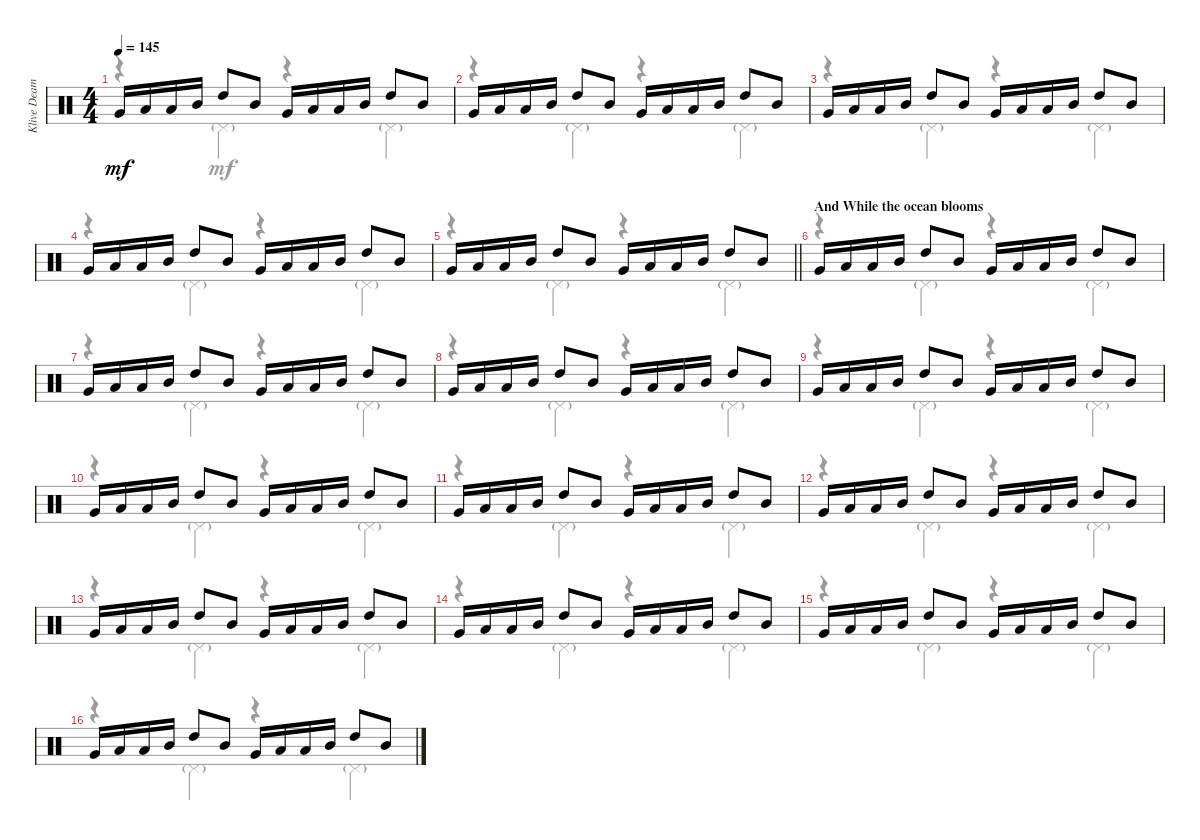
\track ("Klive Deamer" "Klive Deam") {instrument percussion}
\staff {score}
\articulation defaults
\voice
\ts (4 4)
\tempo 145
\clef neutral
\ks c "Very Low Tom (hit)".16{dy mf} "Low Tom (hit)".16 "Low Tom (hit)".16 "Mid Tom (hit)".16 "High Tom (hit)".8 "Mid Tom (hit)".8 "Very Low Tom (hit)".16 "Low Tom (hit)".16 "Low Tom (hit)".16 "Mid Tom (hit)".16 "High Tom (hit)".8 "Mid Tom (hit)".8
|
"Very Low Tom (hit)".16 "Low Tom (hit)".16 "Low Tom (hit)".16 "Mid Tom (hit)".16 "High Tom (hit)".8 "Mid Tom (hit)".8 "Very Low Tom (hit)".16 "Low Tom (hit)".16 "Low Tom (hit)".16 "Mid Tom (hit)".16 "High Tom (hit)".8 "Mid Tom (hit)".8 |
"Very Low Tom (hit)".16 "Low Tom (hit)".16 "Low Tom (hit)".16 "Mid Tom (hit)".16 "High Tom (hit)".8 "Mid Tom (hit)".8 "Very Low Tom (hit)".16 "Low Tom (hit)".16 "Low Tom (hit)".16 "Mid Tom (hit)".16 "High Tom (hit)".8 "Mid Tom (hit)".8 |
"Very Low Tom (hit)".16 "Low Tom (hit)".16 "Low Tom (hit)".16 "Mid Tom (hit)".16 "High Tom (hit)".8 "Mid Tom (hit)".8 "Very Low Tom (hit)".16 "Low Tom (hit)".16 "Low Tom (hit)".16 "Mid Tom (hit)".16 "High Tom (hit)".8 "Mid Tom (hit)".8 |
\barLineRight lightlight "Very Low Tom (hit)".16 "Low Tom (hit)".16 "Low Tom (hit)".16 "Mid Tom (hit)".16 "High Tom (hit)".8 "Mid Tom (hit)".8 "Very Low Tom (hit)".16 "Low Tom (hit)".16 "Low Tom (hit)".16 "Mid Tom (hit)".16 "High Tom (hit)".8 "Mid Tom (hit)".8
|
\section ("" "And While the ocean blooms")
"Very Low Tom (hit)".16 "Low Tom (hit)".16 "Low Tom (hit)".16 "Mid Tom (hit)".16 "High Tom (hit)".8 "Mid Tom (hit)".8 "Very Low Tom (hit)".16 "Low Tom (hit)".16 "Low Tom (hit)".16 "Mid Tom (hit)".16 "High Tom (hit)".8 "Mid Tom (hit)".8 |
"Very Low Tom (hit)".16 "Low Tom (hit)".16 "Low Tom (hit)".16 "Mid Tom (hit)".16 "High Tom (hit)".8 "Mid Tom (hit)".8 "Very Low Tom (hit)".16 "Low Tom (hit)".16 "Low Tom (hit)".16 "Mid Tom (hit)".16 "High Tom (hit)".8 "Mid Tom (hit)".8 |
"Very Low Tom (hit)".16 "Low Tom (hit)".16 "Low Tom (hit)".16 "Mid Tom (hit)".16 "High Tom (hit)".8 "Mid Tom (hit)".8 "Very Low Tom (hit)".16 "Low Tom (hit)".16 "Low Tom (hit)".16 "Mid Tom (hit)".16 "High Tom (hit)".8 "Mid Tom (hit)".8 |
"Very Low Tom (hit)".16 "Low Tom (hit)".16 "Low Tom (hit)".16 "Mid Tom (hit)".16 "High Tom (hit)".8 "Mid Tom (hit)".8 "Very Low Tom (hit)".16 "Low Tom (hit)".16 "Low Tom (hit)".16 "Mid Tom (hit)".16 "High Tom (hit)".8 "Mid Tom (hit)".8 |
"Very Low Tom (hit)".16 "Low Tom (hit)".16 "Low Tom (hit)".16 "Mid Tom (hit)".16 "High Tom (hit)".8 "Mid Tom (hit)".8 "Very Low Tom (hit)".16 "Low Tom (hit)".16 "Low Tom (hit)".16 "Mid Tom (hit)".16 "High Tom (hit)".8 "Mid Tom (hit)".8 |
"Very Low Tom (hit)".16 "Low Tom (hit)".16 "Low Tom (hit)".16 "Mid Tom (hit)".16 "High Tom (hit)".8 "Mid Tom (hit)".8 "Very Low Tom (hit)".16 "Low Tom (hit)".16 "Low Tom (hit)".16 "Mid Tom (hit)".16 "High Tom (hit)".8 "Mid Tom (hit)".8 |
"Very Low Tom (hit)".16 "Low Tom (hit)".16 "Low Tom (hit)".16 "Mid Tom (hit)".16 "High Tom (hit)".8 "Mid Tom (hit)".8 "Very Low Tom (hit)".16 "Low Tom (hit)".16 "Low Tom (hit)".16 "Mid Tom (hit)".16 "High Tom (hit)".8 "Mid Tom (hit)".8 |
"Very Low Tom (hit)".16 "Low Tom (hit)".16 "Low Tom (hit)".16 "Mid Tom (hit)".16 "High Tom (hit)".8 "Mid Tom (hit)".8 "Very Low Tom (hit)".16 "Low Tom (hit)".16 "Low Tom (hit)".16 "Mid Tom (hit)".16 "High Tom (hit)".8 "Mid Tom (hit)".8 |
"Very Low Tom (hit)".16 "Low Tom (hit)".16 "Low Tom (hit)".16 "Mid Tom (hit)".16 "High Tom (hit)".8 "Mid Tom (hit)".8 "Very Low Tom (hit)".16 "Low Tom (hit)".16 "Low Tom (hit)".16 "Mid Tom (hit)".16 "High Tom (hit)".8 "Mid Tom (hit)".8 |
"Very Low Tom (hit)".16 "Low Tom (hit)".16 "Low Tom (hit)".16 "Mid Tom (hit)".16 "High Tom (hit)".8 "Mid Tom (hit)".8 "Very Low Tom (hit)".16 "Low Tom (hit)".16 "Low Tom (hit)".16 "Mid Tom (hit)".16 "High Tom (hit)".8 "Mid Tom (hit)".8 |
"Very Low Tom (hit)".16 "Low Tom (hit)".16 "Low Tom (hit)".16 "Mid Tom (hit)".16 "High Tom (hit)".8 "Mid Tom (hit)".8 "Very Low Tom (hit)".16 "Low Tom (hit)".16 "Low Tom (hit)".16 "Mid Tom (hit)".16 "High Tom (hit)".8 "Mid Tom (hit)".8
\voice
\clef neutral
\ottava regular
\simile none
\ks c
r.4{dy mf} "Pedal Hi-Hat (hit)"{g}.4 r.4 "Pedal Hi-Hat (hit)"{g}.4 |
r.4 "Pedal Hi-Hat (hit)"{g}.4 r.4 "Pedal Hi-Hat (hit)"{g}.4 |
r.4 "Pedal Hi-Hat (hit)"{g}.4 r.4 "Pedal Hi-Hat (hit)"{g}.4 |
r.4 "Pedal Hi-Hat (hit)"{g}.4 r.4 "Pedal Hi-Hat (hit)"{g}.4 |
\barLineRight lightlight
r.4 "Pedal Hi-Hat (hit)"{g}.4 r.4 "Pedal Hi-Hat (hit)"{g}.4 |
r.4 "Pedal Hi-Hat (hit)"{g}.4 r.4 "Pedal Hi-Hat (hit)"{g}.4 |
r.4 "Pedal Hi-Hat (hit)"{g}.4 r.4 "Pedal Hi-Hat (hit)"{g}.4 |
r.4 "Pedal Hi-Hat (hit)"{g}.4 r.4 "Pedal Hi-Hat (hit)"{g}.4 |
r.4 "Pedal Hi-Hat (hit)"{g}.4 r.4 "Pedal Hi-Hat (hit)"{g}.4 |
r.4 "Pedal Hi-Hat (hit)"{g}.4 r.4 "Pedal Hi-Hat (hit)"{g}.4 |
r.4 "Pedal Hi-Hat (hit)"{g}.4 r.4 "Pedal Hi-Hat (hit)"{g}.4 |
r.4 "Pedal Hi-Hat (hit)"{g}.4 r.4 "Pedal Hi-Hat (hit)"{g}.4 |
r.4 "Pedal Hi-Hat (hit)"{g}.4 r.4 "Pedal Hi-Hat (hit)"{g}.4 |
r.4 "Pedal Hi-Hat (hit)"{g}.4 r.4 "Pedal Hi-Hat (hit)"{g}.4 |
r.4 "Pedal Hi-Hat (hit)"{g}.4 r.4 "Pedal Hi-Hat (hit)"{g}.4 |
r.4 "Pedal Hi-Hat (hit)"{g}.4 r.4 "Pedal Hi-Hat (hit)"{g}.4
